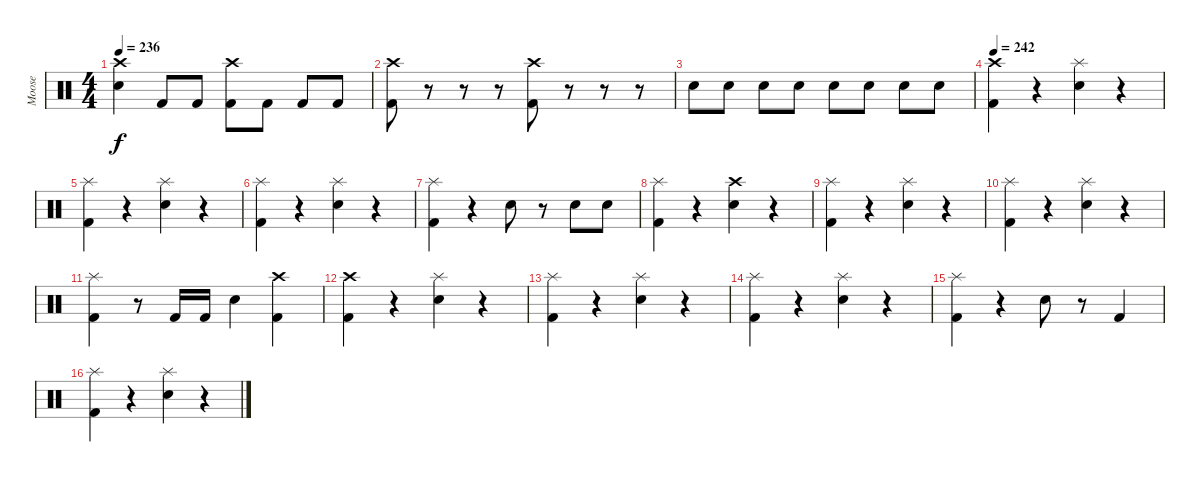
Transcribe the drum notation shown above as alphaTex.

\track ("Moose" "Moose") {instrument percussion}
\staff {score}
\articulation defaults
\ts (4 4)
\tempo 236
\clef neutral
\ks c
("Crash high (hit)" "Electric Snare (hit)").4{dy f} "Kick (hit) 2".8 "Kick (hit) 2".8 ("Crash high (hit)" "Kick (hit) 2").8 "Kick (hit) 2".8 "Kick (hit) 2".8 "Kick (hit) 2".8 |
("Crash high (hit)" "Kick (hit) 2").8 r.8 r.8 r.8 ("Crash high (hit)" "Kick (hit) 2").8 r.8 r.8 r.8 |
"Electric Snare (hit)".8 "Electric Snare (hit)".8 "Electric Snare (hit)".8 "Electric Snare (hit)".8 "Electric Snare (hit)".8 "Electric Snare (hit)".8 "Electric Snare (hit)".8 "Electric Snare (hit)".8 |
\tempo 242
("Crash high (hit)" "Kick (hit) 2").4 r.4 ("Splash (hit)" "Electric Snare (hit)").4 r.4 |
("Splash (hit)" "Kick (hit) 2").4 r.4 ("Splash (hit)" "Electric Snare (hit)").4 r.4 |
("Splash (hit)" "Kick (hit) 2").4 r.4 ("Splash (hit)" "Electric Snare (hit)").4 r.4 |
("Splash (hit)" "Kick (hit) 2").4 r.4 "Electric Snare (hit)".8 r.8 "Electric Snare (hit)".8 "Electric Snare (hit)".8 |
("Splash (hit)" "Kick (hit) 2").4 r.4 ("Crash high (hit)" "Electric Snare (hit)").4 r.4 |
("Splash (hit)" "Kick (hit) 2").4 r.4 ("Splash (hit)" "Electric Snare (hit)").4 r.4 |
("Splash (hit)" "Kick (hit) 2").4 r.4 ("Splash (hit)" "Electric Snare (hit)").4 r.4 |
("Splash (hit)" "Kick (hit) 2").4 r.8 "Kick (hit) 2".16 "Kick (hit) 2".16 "Electric Snare (hit)".4 ("Crash high (hit)" "Kick (hit) 2").4 |
("Crash high (hit)" "Kick (hit) 2").4 r.4 ("Splash (hit)" "Electric Snare (hit)").4 r.4 |
("Splash (hit)" "Kick (hit) 2").4 r.4 ("Splash (hit)" "Electric Snare (hit)").4 r.4 |
("Splash (hit)" "Kick (hit) 2").4 r.4 ("Splash (hit)" "Electric Snare (hit)").4 r.4 |
("Splash (hit)" "Kick (hit) 2").4 r.4 "Electric Snare (hit)".8 r.8 "Kick (hit) 2".4 |
("Splash (hit)" "Kick (hit) 2").4 r.4 ("Splash (hit)" "Electric Snare (hit)").4 r.4
